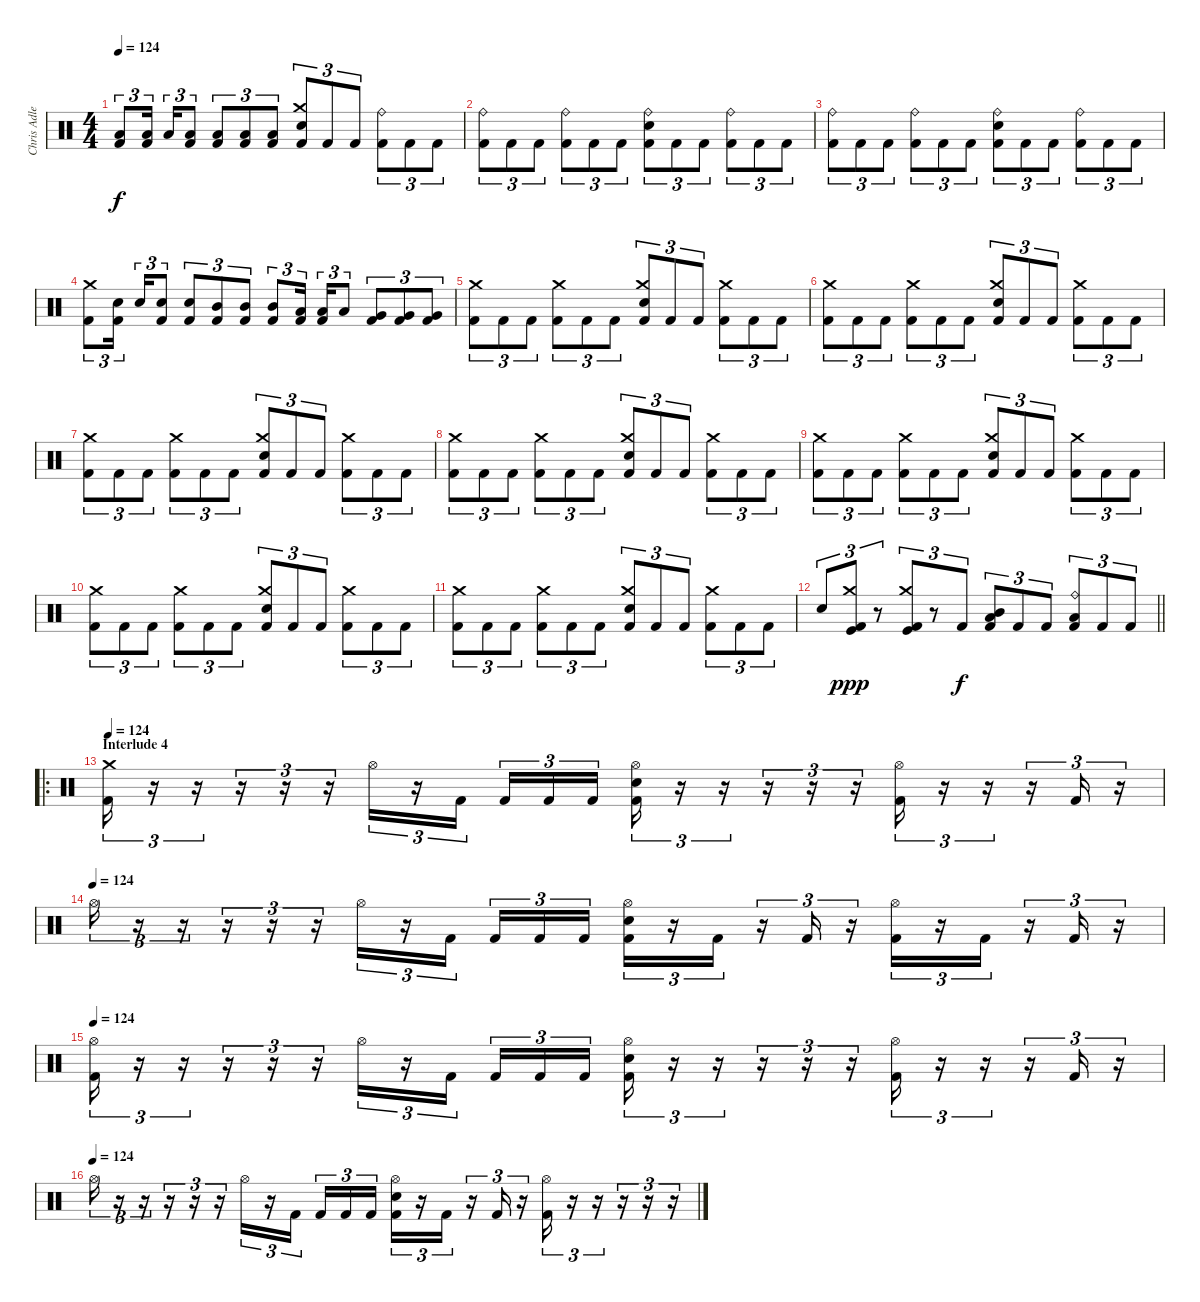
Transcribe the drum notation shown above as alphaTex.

\track ("Chris Adler" "Chris Adle") {instrument percussion}
\staff {score}
\articulation defaults
\ts (4 4)
\tempo 124
\clef neutral
\ks c
("Low Floor Tom (hit)" "Kick (hit) 2").8{tu (3 2) dy f} ("Low Floor Tom (hit)" "Kick (hit) 2").16{tu (3 2) beam splitsecondary} "Low Floor Tom (hit)".16{tu (3 2)} ("Low Floor Tom (hit)" "Kick (hit) 2").8{tu (3 2)} ("Low Floor Tom (hit)" "Kick (hit) 2").8{tu (3 2)} ("Low Floor Tom (hit)" "Kick (hit) 2").8{tu (3 2)} ("Low Floor Tom (hit)" "Kick (hit) 2").8{tu (3 2)} ("Crash medium (hit)" "Electric Snare (hit)" "Kick (hit) 2").8{tu (3 2)} "Kick (hit) 2".8{tu (3 2)} "Kick (hit) 2".8{tu (3 2)} ("Ride (bell)" "Kick (hit) 2").8{tu (3 2)} "Kick (hit) 2".8{tu (3 2)} "Kick (hit) 2".8{tu (3 2)} |
("Ride (bell)" "Kick (hit) 2").8{tu (3 2)} "Kick (hit) 2".8{tu (3 2)} "Kick (hit) 2".8{tu (3 2)} ("Ride (bell)" "Kick (hit) 2").8{tu (3 2)} "Kick (hit) 2".8{tu (3 2)} "Kick (hit) 2".8{tu (3 2)} ("Ride (bell)" "Electric Snare (hit)" "Kick (hit) 2").8{tu (3 2)} "Kick (hit) 2".8{tu (3 2)} "Kick (hit) 2".8{tu (3 2)} ("Ride (bell)" "Kick (hit) 2").8{tu (3 2)} "Kick (hit) 2".8{tu (3 2)} "Kick (hit) 2".8{tu (3 2)} |
("Ride (bell)" "Kick (hit) 2").8{tu (3 2)} "Kick (hit) 2".8{tu (3 2)} "Kick (hit) 2".8{tu (3 2)} ("Ride (bell)" "Kick (hit) 2").8{tu (3 2)} "Kick (hit) 2".8{tu (3 2)} "Kick (hit) 2".8{tu (3 2)} ("Ride (bell)" "Electric Snare (hit)" "Kick (hit) 2").8{tu (3 2)} "Kick (hit) 2".8{tu (3 2)} "Kick (hit) 2".8{tu (3 2)} ("Ride (bell)" "Kick (hit) 2").8{tu (3 2)} "Kick (hit) 2".8{tu (3 2)} "Kick (hit) 2".8{tu (3 2)} |
("Crash medium (hit)" "Kick (hit) 2").8{tu (3 2)} ("Electric Snare (hit)" "Kick (hit) 2").16{tu (3 2) beam splitsecondary} "Electric Snare (hit)".16{tu (3 2)} ("Electric Snare (hit)" "Kick (hit) 2").8{tu (3 2)} ("Electric Snare (hit)" "Kick (hit) 2").8{tu (3 2)} ("Mid Tom (hit)" "Kick (hit) 2").8{tu (3 2)} ("Mid Tom (hit)" "Kick (hit) 2").8{tu (3 2)} ("Mid Tom (hit)" "Kick (hit) 2").8{tu (3 2)} ("Low Tom (hit)" "Kick (hit) 2").16{tu (3 2) beam splitsecondary} ("Low Tom (hit)" "Kick (hit) 2").16{tu (3 2)} "Low Tom (hit)".8{tu (3 2)} ("Very Low Tom (hit)" "Kick (hit) 2").8{tu (3 2)} ("Very Low Tom (hit)" "Kick (hit) 2").8{tu (3 2)} ("Very Low Tom (hit)" "Kick (hit) 2").8{tu (3 2)} |
("Crash medium (hit)" "Kick (hit) 2").8{tu (3 2)} "Kick (hit) 2".8{tu (3 2)} "Kick (hit) 2".8{tu (3 2)} ("Crash medium (hit)" "Kick (hit) 2").8{tu (3 2)} "Kick (hit) 2".8{tu (3 2)} "Kick (hit) 2".8{tu (3 2)} ("Crash medium (hit)" "Electric Snare (hit)" "Kick (hit) 2").8{tu (3 2)} "Kick (hit) 2".8{tu (3 2)} "Kick (hit) 2".8{tu (3 2)} ("Crash medium (hit)" "Kick (hit) 2").8{tu (3 2)} "Kick (hit) 2".8{tu (3 2)} "Kick (hit) 2".8{tu (3 2)} |
("Crash medium (hit)" "Kick (hit) 2").8{tu (3 2)} "Kick (hit) 2".8{tu (3 2)} "Kick (hit) 2".8{tu (3 2)} ("Crash medium (hit)" "Kick (hit) 2").8{tu (3 2)} "Kick (hit) 2".8{tu (3 2)} "Kick (hit) 2".8{tu (3 2)} ("Crash medium (hit)" "Electric Snare (hit)" "Kick (hit) 2").8{tu (3 2)} "Kick (hit) 2".8{tu (3 2)} "Kick (hit) 2".8{tu (3 2)} ("Crash medium (hit)" "Kick (hit) 2").8{tu (3 2)} "Kick (hit) 2".8{tu (3 2)} "Kick (hit) 2".8{tu (3 2)} |
("Crash medium (hit)" "Kick (hit) 2").8{tu (3 2)} "Kick (hit) 2".8{tu (3 2)} "Kick (hit) 2".8{tu (3 2)} ("Crash medium (hit)" "Kick (hit) 2").8{tu (3 2)} "Kick (hit) 2".8{tu (3 2)} "Kick (hit) 2".8{tu (3 2)} ("Crash medium (hit)" "Electric Snare (hit)" "Kick (hit) 2").8{tu (3 2)} "Kick (hit) 2".8{tu (3 2)} "Kick (hit) 2".8{tu (3 2)} ("Crash medium (hit)" "Kick (hit) 2").8{tu (3 2)} "Kick (hit) 2".8{tu (3 2)} "Kick (hit) 2".8{tu (3 2)} |
("Crash medium (hit)" "Kick (hit) 2").8{tu (3 2)} "Kick (hit) 2".8{tu (3 2)} "Kick (hit) 2".8{tu (3 2)} ("Crash medium (hit)" "Kick (hit) 2").8{tu (3 2)} "Kick (hit) 2".8{tu (3 2)} "Kick (hit) 2".8{tu (3 2)} ("Crash medium (hit)" "Electric Snare (hit)" "Kick (hit) 2").8{tu (3 2)} "Kick (hit) 2".8{tu (3 2)} "Kick (hit) 2".8{tu (3 2)} ("Crash medium (hit)" "Kick (hit) 2").8{tu (3 2)} "Kick (hit) 2".8{tu (3 2)} "Kick (hit) 2".8{tu (3 2)} |
("Crash medium (hit)" "Kick (hit) 2").8{tu (3 2)} "Kick (hit) 2".8{tu (3 2)} "Kick (hit) 2".8{tu (3 2)} ("Crash medium (hit)" "Kick (hit) 2").8{tu (3 2)} "Kick (hit) 2".8{tu (3 2)} "Kick (hit) 2".8{tu (3 2)} ("Crash medium (hit)" "Electric Snare (hit)" "Kick (hit) 2").8{tu (3 2)} "Kick (hit) 2".8{tu (3 2)} "Kick (hit) 2".8{tu (3 2)} ("Crash medium (hit)" "Kick (hit) 2").8{tu (3 2)} "Kick (hit) 2".8{tu (3 2)} "Kick (hit) 2".8{tu (3 2)} |
("Crash medium (hit)" "Kick (hit) 2").8{tu (3 2)} "Kick (hit) 2".8{tu (3 2)} "Kick (hit) 2".8{tu (3 2)} ("Crash medium (hit)" "Kick (hit) 2").8{tu (3 2)} "Kick (hit) 2".8{tu (3 2)} "Kick (hit) 2".8{tu (3 2)} ("Crash medium (hit)" "Electric Snare (hit)" "Kick (hit) 2").8{tu (3 2)} "Kick (hit) 2".8{tu (3 2)} "Kick (hit) 2".8{tu (3 2)} ("Crash medium (hit)" "Kick (hit) 2").8{tu (3 2)} "Kick (hit) 2".8{tu (3 2)} "Kick (hit) 2".8{tu (3 2)} |
("Crash medium (hit)" "Kick (hit) 2").8{tu (3 2)} "Kick (hit) 2".8{tu (3 2)} "Kick (hit) 2".8{tu (3 2)} ("Crash medium (hit)" "Kick (hit) 2").8{tu (3 2)} "Kick (hit) 2".8{tu (3 2)} "Kick (hit) 2".8{tu (3 2)} ("Crash medium (hit)" "Electric Snare (hit)" "Kick (hit) 2").8{tu (3 2)} "Kick (hit) 2".8{tu (3 2)} "Kick (hit) 2".8{tu (3 2)} ("Crash medium (hit)" "Kick (hit) 2").8{tu (3 2)} "Kick (hit) 2".8{tu (3 2)} "Kick (hit) 2".8{tu (3 2)} |
\barLineRight lightlight "Electric Snare (hit)".8{tu (3 2)}
("Crash medium (hit)" "Kick (hit)" "Kick (hit) 2").8{tu (3 2) dy ppp} r.8{tu (3 2)} ("Crash medium (hit)" "Kick (hit)" "Kick (hit) 2").8{tu (3 2)} r.8{tu (3 2)} "Kick (hit) 2".8{tu (3 2) dy f} ("Mid Tom (hit)" "Low Tom (hit)" "Kick (hit) 2").8{tu (3 2)} "Kick (hit) 2".8{tu (3 2)} "Kick (hit) 2".8{tu (3 2)} ("Low Tom (hit)" "Ride (bell)" "Kick (hit) 2").8{tu (3 2)} "Kick (hit) 2".8{tu (3 2)} "Kick (hit) 2".8{tu (3 2)} |
\ro
\section ("" "Interlude 4")
\tempo 124
("Crash medium (hit)" "Kick (hit) 2").16{tu (3 2)} r.16{tu (3 2)} r.16{tu (3 2)} r.16{tu (3 2)} r.16{tu (3 2)} r.16{tu (3 2)} "Hi-Hat (open)".16{tu (3 2)} r.16{tu (3 2)} "Kick (hit) 2".16{tu (3 2) beam splitsecondary} "Kick (hit) 2".16{tu (3 2)} "Kick (hit) 2".16{tu (3 2)} "Kick (hit) 2".16{tu (3 2)} ("Hi-Hat (open)" "Electric Snare (hit)" "Kick (hit) 2").16{tu (3 2)} r.16{tu (3 2)} r.16{tu (3 2)} r.16{tu (3 2)} r.16{tu (3 2)} r.16{tu (3 2)} ("Hi-Hat (open)" "Kick (hit) 2").16{tu (3 2)} r.16{tu (3 2)} r.16{tu (3 2)} r.16{tu (3 2)} "Kick (hit) 2".16{tu (3 2)} r.16{tu (3 2)} |
\tempo (124)
"Hi-Hat (open)".16{tu (3 2)} r.16{tu (3 2)} r.16{tu (3 2)} r.16{tu (3 2)} r.16{tu (3 2)} r.16{tu (3 2)} "Hi-Hat (open)".16{tu (3 2)} r.16{tu (3 2)} "Kick (hit) 2".16{tu (3 2) beam splitsecondary} "Kick (hit) 2".16{tu (3 2)} "Kick (hit) 2".16{tu (3 2)} "Kick (hit) 2".16{tu (3 2)} ("Hi-Hat (open)" "Electric Snare (hit)" "Kick (hit) 2").16{tu (3 2)} r.16{tu (3 2)} "Kick (hit) 2".16{tu (3 2)} r.16{tu (3 2)} "Kick (hit) 2".16{tu (3 2)} r.16{tu (3 2)} ("Hi-Hat (open)" "Kick (hit) 2").16{tu (3 2)} r.16{tu (3 2)} "Kick (hit) 2".16{tu (3 2)} r.16{tu (3 2)} "Kick (hit) 2".16{tu (3 2)} r.16{tu (3 2)} |
\tempo 124
("Hi-Hat (open)" "Kick (hit) 2").16{tu (3 2)} r.16{tu (3 2)} r.16{tu (3 2)} r.16{tu (3 2)} r.16{tu (3 2)} r.16{tu (3 2)} "Hi-Hat (open)".16{tu (3 2)} r.16{tu (3 2)} "Kick (hit) 2".16{tu (3 2) beam splitsecondary} "Kick (hit) 2".16{tu (3 2)} "Kick (hit) 2".16{tu (3 2)} "Kick (hit) 2".16{tu (3 2)} ("Hi-Hat (open)" "Electric Snare (hit)" "Kick (hit) 2").16{tu (3 2)} r.16{tu (3 2)} r.16{tu (3 2)} r.16{tu (3 2)} r.16{tu (3 2)} r.16{tu (3 2)} ("Hi-Hat (open)" "Kick (hit) 2").16{tu (3 2)} r.16{tu (3 2)} r.16{tu (3 2)} r.16{tu (3 2)} "Kick (hit) 2".16{tu (3 2)} r.16{tu (3 2)} |
\tempo (124)
"Hi-Hat (open)".16{tu (3 2)} r.16{tu (3 2)} r.16{tu (3 2)} r.16{tu (3 2)} r.16{tu (3 2)} r.16{tu (3 2)} "Hi-Hat (open)".16{tu (3 2)} r.16{tu (3 2)} "Kick (hit) 2".16{tu (3 2) beam splitsecondary} "Kick (hit) 2".16{tu (3 2)} "Kick (hit) 2".16{tu (3 2)} "Kick (hit) 2".16{tu (3 2)} ("Hi-Hat (open)" "Electric Snare (hit)" "Kick (hit) 2").16{tu (3 2)} r.16{tu (3 2)} "Kick (hit) 2".16{tu (3 2)} r.16{tu (3 2)} "Kick (hit) 2".16{tu (3 2)} r.16{tu (3 2)} ("Hi-Hat (open)" "Kick (hit) 2").16{tu (3 2)} r.16{tu (3 2)} r.16{tu (3 2)} r.16{tu (3 2)} r.16{tu (3 2)} r.16{tu (3 2)}
